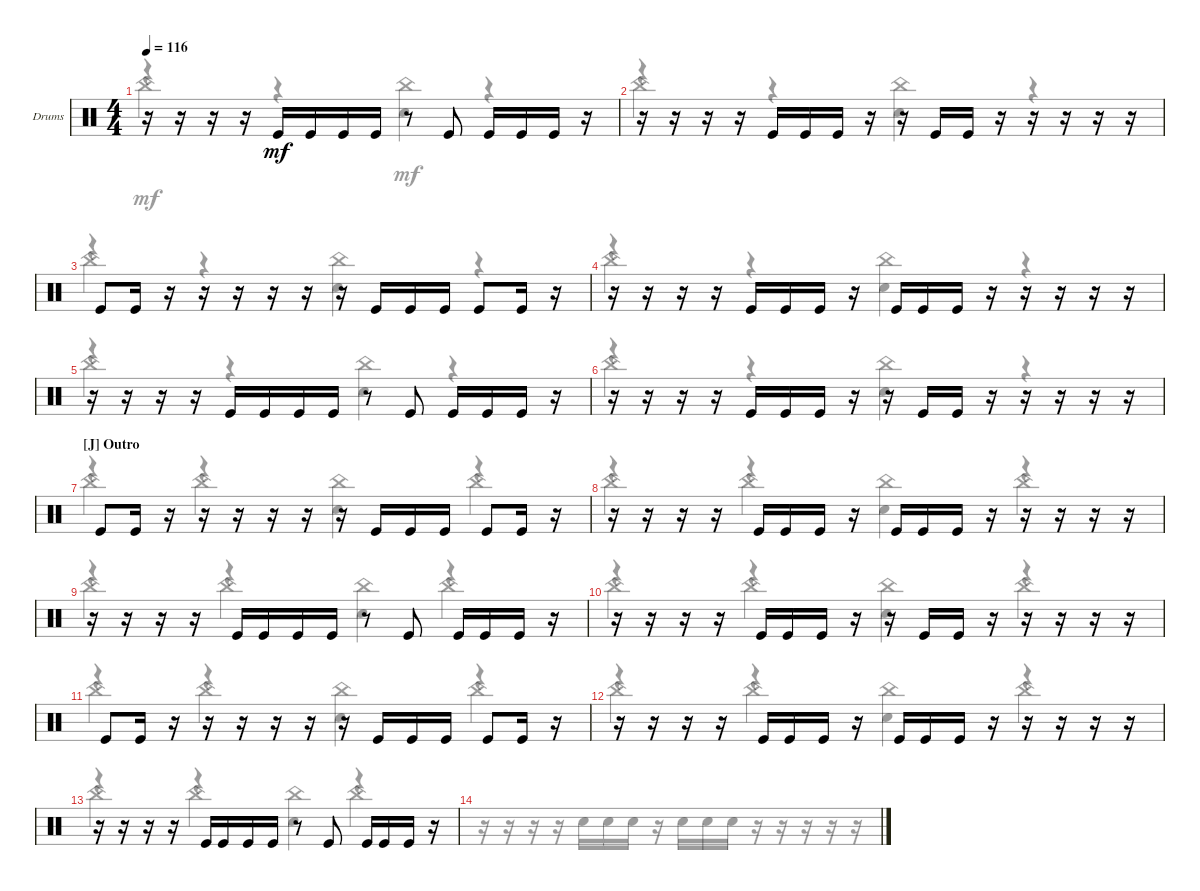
\defaultSystemsLayout 4
\bracketExtendMode groupsimilarinstruments
\firstSystemTrackNameOrientation horizontal
\otherSystemsTrackNameOrientation horizontal
\track ("Drumkit" "Drums") {instrument percussion}
\staff {score}
\articulation defaults
\voice
\ts (4 4)
\tempo 116
\clef neutral
\ks c
r.16{dy mf} r.16 r.16 r.16 "Kick (hit)".16 "Kick (hit)".16 "Kick (hit)".16 "Kick (hit)".16 r.8 "Kick (hit)".8 "Kick (hit)".16 "Kick (hit)".16 "Kick (hit)".16 r.16 |
r.16 r.16 r.16 r.16 "Kick (hit)".16 "Kick (hit)".16 "Kick (hit)".16 r.16 r.16 "Kick (hit)".16 "Kick (hit)".16 r.16 r.16 r.16 r.16 r.16 |
"Kick (hit)".8 "Kick (hit)".16 r.16 r.16 r.16 r.16 r.16 r.16 "Kick (hit)".16 "Kick (hit)".16 "Kick (hit)".16 "Kick (hit)".8 "Kick (hit)".16 r.16 |
r.16 r.16 r.16 r.16 "Kick (hit)".16 "Kick (hit)".16 "Kick (hit)".16 r.16 "Kick (hit)".16 "Kick (hit)".16 "Kick (hit)".16 r.16 r.16 r.16 r.16 r.16 |
r.16 r.16 r.16 r.16 "Kick (hit)".16 "Kick (hit)".16 "Kick (hit)".16 "Kick (hit)".16 r.8 "Kick (hit)".8 "Kick (hit)".16 "Kick (hit)".16 "Kick (hit)".16 r.16 |
r.16 r.16 r.16 r.16 "Kick (hit)".16 "Kick (hit)".16 "Kick (hit)".16 r.16 r.16 "Kick (hit)".16 "Kick (hit)".16 r.16 r.16 r.16 r.16 r.16 |
\section ("J" "Outro")
"Kick (hit)".8 "Kick (hit)".16 r.16 r.16 r.16 r.16 r.16 r.16 "Kick (hit)".16 "Kick (hit)".16 "Kick (hit)".16 "Kick (hit)".8 "Kick (hit)".16 r.16 |
r.16 r.16 r.16 r.16 "Kick (hit)".16 "Kick (hit)".16 "Kick (hit)".16 r.16 "Kick (hit)".16 "Kick (hit)".16 "Kick (hit)".16 r.16 r.16 r.16 r.16 r.16 |
r.16 r.16 r.16 r.16 "Kick (hit)".16 "Kick (hit)".16 "Kick (hit)".16 "Kick (hit)".16 r.8 "Kick (hit)".8 "Kick (hit)".16 "Kick (hit)".16 "Kick (hit)".16 r.16 |
r.16 r.16 r.16 r.16 "Kick (hit)".16 "Kick (hit)".16 "Kick (hit)".16 r.16 r.16 "Kick (hit)".16 "Kick (hit)".16 r.16 r.16 r.16 r.16 r.16 |
"Kick (hit)".8 "Kick (hit)".16 r.16 r.16 r.16 r.16 r.16 r.16 "Kick (hit)".16 "Kick (hit)".16 "Kick (hit)".16 "Kick (hit)".8 "Kick (hit)".16 r.16 |
r.16 r.16 r.16 r.16 "Kick (hit)".16 "Kick (hit)".16 "Kick (hit)".16 r.16 "Kick (hit)".16 "Kick (hit)".16 "Kick (hit)".16 r.16 r.16 r.16 r.16 r.16 |
r.16 r.16 r.16 r.16 "Kick (hit)".16 "Kick (hit)".16 "Kick (hit)".16 "Kick (hit)".16 r.8 "Kick (hit)".8 "Kick (hit)".16 "Kick (hit)".16 "Kick (hit)".16 r.16 |
\voice
\clef neutral
\ottava regular
\simile none
\ks c
r.4{dy mf} r.4 "Snare (hit) 2".4 r.4 |
r.4 r.4 "Snare (hit) 2".4 r.4 |
r.4 r.4 "Snare (hit) 2".4 r.4 |
r.4 r.4 "Snare (hit) 2".4 r.4 |
r.4 r.4 "Snare (hit) 2".4 r.4 |
r.4 r.4 "Snare (hit) 2".4 r.4 |
r.4 r.4 "Snare (hit) 2".4 r.4 |
r.4 r.4 "Snare (hit) 2".4 r.4 |
r.4 r.4 "Snare (hit) 2".4 r.4 |
r.4 r.4 "Snare (hit) 2".4 r.4 |
r.4 r.4 "Snare (hit) 2".4 r.4 |
r.4 r.4 "Snare (hit) 2".4 r.4 |
r.4 r.4 "Snare (hit) 2".4 r.4 |
r.16 r.16 r.16 r.16 "Snare (hit) 2".16 "Snare (hit) 2".16 "Snare (hit) 2".16 r.16 "Snare (hit) 2".16 "Snare (hit) 2".16 "Snare (hit) 2".16 r.16 r.16 r.16 r.16 r.16
\voice
\clef neutral
\ottava regular
\simile none
\ks c "China (hit)".2{dy mf} "China (hit)".2
|
"China (hit)".2 "China (hit)".2 |
"China (hit)".2 "China (hit)".2 |
"China (hit)".2 "China (hit)".2 |
"China (hit)".2 "China (hit)".2 |
"China (hit)".2 "China (hit)".2 |
"China (hit)".4 "China (hit)".4 "China (hit)".4 "China (hit)".4 |
"China (hit)".4 "China (hit)".4 "China (hit)".4 "China (hit)".4 |
"China (hit)".4 "China (hit)".4 "China (hit)".4 "China (hit)".4 |
"China (hit)".4 "China (hit)".4 "China (hit)".4 "China (hit)".4 |
"China (hit)".4 "China (hit)".4 "China (hit)".4 "China (hit)".4 |
"China (hit)".4 "China (hit)".4 "China (hit)".4 "China (hit)".4 |
"China (hit)".4 "China (hit)".4 "China (hit)".4 "China (hit)".4 |
